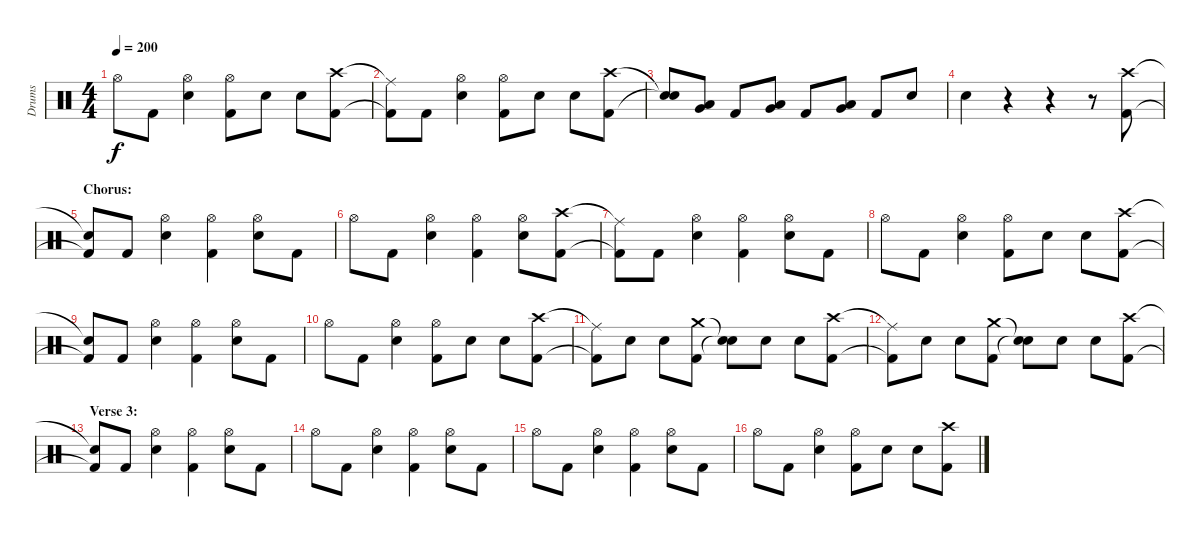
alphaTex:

\track ("Drums" "Drums") {instrument percussion}
\staff {score}
\articulation defaults
\ts (4 4)
\tempo 200
\clef neutral
\ks c "Hi-Hat (open)".8{dy f} "Kick (hit) 2".8
("Hi-Hat (open)" "Electric Snare (hit)").4 ("Hi-Hat (open)" "Kick (hit) 2").8 "Electric Snare (hit)".8 "Electric Snare (hit)".8 ("Crash high (hit)" "Kick (hit) 2").8 |
("Ride (middle)"{t} "Kick (hit) 2"{t}).8 "Kick (hit) 2".8 ("Hi-Hat (open)" "Electric Snare (hit)").4 ("Hi-Hat (open)" "Kick (hit) 2").8 "Electric Snare (hit)".8 "Electric Snare (hit)".8 ("Crash high (hit)" "Kick (hit) 2").8 |
("Snare (hit)"{t} "Snare (hit)"{t}).8 ("Very Low Tom (hit)" "Low Tom (hit)").8 "Kick (hit) 2".8 ("Very Low Tom (hit)" "Low Tom (hit)").8 "Kick (hit) 2".8 ("Very Low Tom (hit)" "Low Tom (hit)").8 "Kick (hit) 2".8 "Electric Snare (hit)".8 |
"Electric Snare (hit)".4 r.4 r.4 r.8 ("Crash high (hit)" "Kick (hit) 2").8 |
\section ("" "Chorus:")
("Snare (hit)"{t} "Kick (hit) 2"{t}).8 "Kick (hit) 2".8 ("Hi-Hat (open)" "Electric Snare (hit)").4 ("Hi-Hat (open)" "Kick (hit) 2").4 ("Hi-Hat (open)" "Electric Snare (hit)").8 "Kick (hit) 2".8 |
"Hi-Hat (open)".8 "Kick (hit) 2".8 ("Hi-Hat (open)" "Electric Snare (hit)").4 ("Hi-Hat (open)" "Kick (hit) 2").4 ("Hi-Hat (open)" "Electric Snare (hit)").8 ("Crash high (hit)" "Kick (hit) 2").8 |
("Ride (middle)"{t} "Kick (hit) 2"{t}).8 "Kick (hit) 2".8 ("Hi-Hat (open)" "Electric Snare (hit)").4 ("Hi-Hat (open)" "Kick (hit) 2").4 ("Hi-Hat (open)" "Electric Snare (hit)").8 "Kick (hit) 2".8 |
"Hi-Hat (open)".8 "Kick (hit) 2".8 ("Hi-Hat (open)" "Electric Snare (hit)").4 ("Hi-Hat (open)" "Kick (hit) 2").8 "Electric Snare (hit)".8 "Electric Snare (hit)".8 ("Crash high (hit)" "Kick (hit) 2").8 |
("Snare (hit)"{t} "Kick (hit) 2"{t}).8 "Kick (hit) 2".8 ("Hi-Hat (open)" "Electric Snare (hit)").4 ("Hi-Hat (open)" "Kick (hit) 2").4 ("Hi-Hat (open)" "Electric Snare (hit)").8 "Kick (hit) 2".8 |
"Hi-Hat (open)".8 "Kick (hit) 2".8 ("Hi-Hat (open)" "Electric Snare (hit)").4 ("Hi-Hat (open)" "Kick (hit) 2").8 "Electric Snare (hit)".8 "Electric Snare (hit)".8 ("Crash high (hit)" "Kick (hit) 2").8 |
("Ride (middle)"{t} "Kick (hit) 2"{t}).8 "Electric Snare (hit)".8 "Electric Snare (hit)".8 ("Crash medium (hit)" "Kick (hit) 2").8 ("Snare (hit)"{t} "Snare (hit)"{t}).8 "Electric Snare (hit)".8 "Electric Snare (hit)".8 ("Crash high (hit)" "Kick (hit) 2").8 |
("Ride (middle)"{t} "Kick (hit) 2"{t}).8 "Electric Snare (hit)".8 "Electric Snare (hit)".8 ("Crash medium (hit)" "Kick (hit) 2").8 ("Snare (hit)"{t} "Snare (hit)"{t}).8 "Electric Snare (hit)".8 "Electric Snare (hit)".8 ("Crash high (hit)" "Kick (hit) 2").8 |
\section ("" "Verse 3:")
("Snare (hit)"{t} "Kick (hit) 2"{t}).8 "Kick (hit) 2".8 ("Hi-Hat (open)" "Electric Snare (hit)").4 ("Hi-Hat (open)" "Kick (hit) 2").4 ("Hi-Hat (open)" "Electric Snare (hit)").8 "Kick (hit) 2".8 |
"Hi-Hat (open)".8 "Kick (hit) 2".8 ("Hi-Hat (open)" "Electric Snare (hit)").4 ("Hi-Hat (open)" "Kick (hit) 2").4 ("Hi-Hat (open)" "Electric Snare (hit)").8 "Kick (hit) 2".8 |
"Hi-Hat (open)".8 "Kick (hit) 2".8 ("Hi-Hat (open)" "Electric Snare (hit)").4 ("Hi-Hat (open)" "Kick (hit) 2").4 ("Hi-Hat (open)" "Electric Snare (hit)").8 "Kick (hit) 2".8 |
"Hi-Hat (open)".8 "Kick (hit) 2".8 ("Hi-Hat (open)" "Electric Snare (hit)").4 ("Hi-Hat (open)" "Kick (hit) 2").8 "Electric Snare (hit)".8 "Electric Snare (hit)".8 ("Crash high (hit)" "Kick (hit) 2").8
